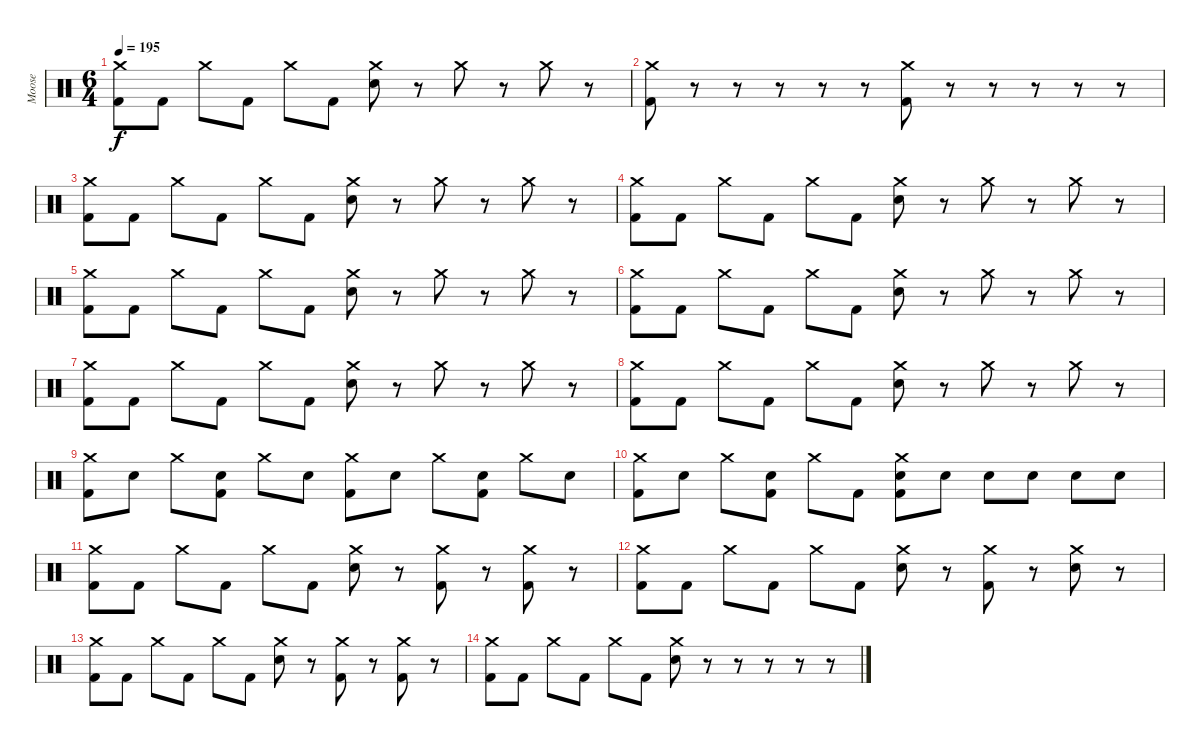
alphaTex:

\track ("Moose" "Moose") {instrument percussion}
\staff {score}
\articulation defaults
\ts (6 4)
\tempo 195
\clef neutral
\ks c
("Crash medium (hit)" "Kick (hit) 2").8{dy f} "Kick (hit) 2".8 "Crash medium (hit)".8 "Kick (hit) 2".8 "Crash medium (hit)".8 "Kick (hit) 2".8 ("Crash medium (hit)" "Electric Snare (hit)").8 r.8 "Crash medium (hit)".8 r.8 "Crash medium (hit)".8 r.8 |
("Crash medium (hit)" "Kick (hit) 2").8 r.8 r.8 r.8 r.8 r.8 ("Crash medium (hit)" "Kick (hit) 2").8 r.8 r.8 r.8 r.8 r.8 |
("Crash medium (hit)" "Kick (hit) 2").8 "Kick (hit) 2".8 "Crash medium (hit)".8 "Kick (hit) 2".8 "Crash medium (hit)".8 "Kick (hit) 2".8 ("Crash medium (hit)" "Electric Snare (hit)").8 r.8 "Crash medium (hit)".8 r.8 "Crash medium (hit)".8 r.8 |
("Crash medium (hit)" "Kick (hit) 2").8 "Kick (hit) 2".8 "Crash medium (hit)".8 "Kick (hit) 2".8 "Crash medium (hit)".8 "Kick (hit) 2".8 ("Crash medium (hit)" "Electric Snare (hit)").8 r.8 "Crash medium (hit)".8 r.8 "Crash medium (hit)".8 r.8 |
("Crash medium (hit)" "Kick (hit) 2").8 "Kick (hit) 2".8 "Crash medium (hit)".8 "Kick (hit) 2".8 "Crash medium (hit)".8 "Kick (hit) 2".8 ("Crash medium (hit)" "Electric Snare (hit)").8 r.8 "Crash medium (hit)".8 r.8 "Crash medium (hit)".8 r.8 |
("Crash medium (hit)" "Kick (hit) 2").8 "Kick (hit) 2".8 "Crash medium (hit)".8 "Kick (hit) 2".8 "Crash medium (hit)".8 "Kick (hit) 2".8 ("Crash medium (hit)" "Electric Snare (hit)").8 r.8 "Crash medium (hit)".8 r.8 "Crash medium (hit)".8 r.8 |
("Crash medium (hit)" "Kick (hit) 2").8 "Kick (hit) 2".8 "Crash medium (hit)".8 "Kick (hit) 2".8 "Crash medium (hit)".8 "Kick (hit) 2".8 ("Crash medium (hit)" "Electric Snare (hit)").8 r.8 "Crash medium (hit)".8 r.8 "Crash medium (hit)".8 r.8 |
("Crash medium (hit)" "Kick (hit) 2").8 "Kick (hit) 2".8 "Crash medium (hit)".8 "Kick (hit) 2".8 "Crash medium (hit)".8 "Kick (hit) 2".8 ("Crash medium (hit)" "Electric Snare (hit)").8 r.8 "Crash medium (hit)".8 r.8 "Crash medium (hit)".8 r.8 |
("Crash medium (hit)" "Kick (hit) 2").8 "Electric Snare (hit)".8 "Crash medium (hit)".8 ("Electric Snare (hit)" "Kick (hit) 2").8 "Crash medium (hit)".8 "Electric Snare (hit)".8 ("Crash medium (hit)" "Kick (hit) 2").8 "Electric Snare (hit)".8 "Crash medium (hit)".8 ("Electric Snare (hit)" "Kick (hit) 2").8 "Crash medium (hit)".8 "Electric Snare (hit)".8 |
("Crash medium (hit)" "Kick (hit) 2").8 "Electric Snare (hit)".8 "Crash medium (hit)".8 ("Electric Snare (hit)" "Kick (hit) 2").8 "Crash medium (hit)".8 "Kick (hit) 2".8 ("Crash medium (hit)" "Electric Snare (hit)" "Kick (hit) 2").8 "Electric Snare (hit)".8 "Electric Snare (hit)".8 "Electric Snare (hit)".8 "Electric Snare (hit)".8 "Electric Snare (hit)".8 |
("Crash medium (hit)" "Kick (hit) 2").8 "Kick (hit) 2".8 "Crash medium (hit)".8 "Kick (hit) 2".8 "Crash medium (hit)".8 "Kick (hit) 2".8 ("Crash medium (hit)" "Electric Snare (hit)").8 r.8 ("Crash medium (hit)" "Kick (hit) 2").8 r.8 ("Crash medium (hit)" "Kick (hit) 2").8 r.8 |
("Crash medium (hit)" "Kick (hit) 2").8 "Kick (hit) 2".8 "Crash medium (hit)".8 "Kick (hit) 2".8 "Crash medium (hit)".8 "Kick (hit) 2".8 ("Crash medium (hit)" "Electric Snare (hit)").8 r.8 ("Crash medium (hit)" "Kick (hit) 2").8 r.8 ("Crash medium (hit)" "Electric Snare (hit)").8 r.8 |
("Crash medium (hit)" "Kick (hit) 2").8 "Kick (hit) 2".8 "Crash medium (hit)".8 "Kick (hit) 2".8 "Crash medium (hit)".8 "Kick (hit) 2".8 ("Crash medium (hit)" "Electric Snare (hit)").8 r.8 ("Crash medium (hit)" "Kick (hit) 2").8 r.8 ("Crash medium (hit)" "Kick (hit) 2").8 r.8 |
("Crash medium (hit)" "Kick (hit) 2").8 "Kick (hit) 2".8 "Crash medium (hit)".8 "Kick (hit) 2".8 "Crash medium (hit)".8 "Kick (hit) 2".8 ("Crash medium (hit)" "Electric Snare (hit)").8 r.8 r.8 r.8 r.8 r.8
